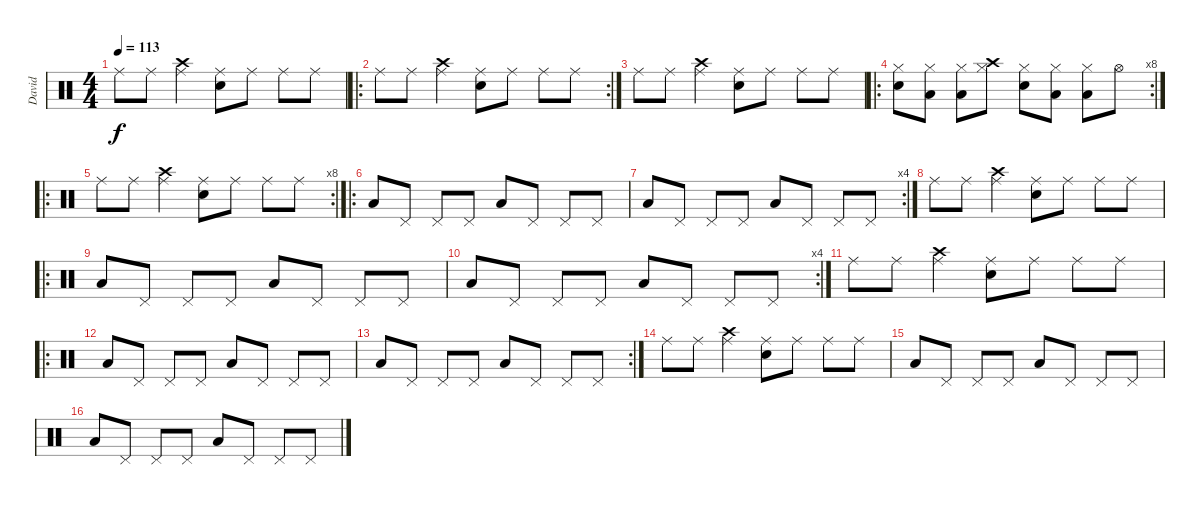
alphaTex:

\track ("David" "David") {instrument percussion}
\staff {score}
\articulation defaults
\ts (4 4)
\tempo 113
\clef neutral
\ks c "Ride (middle)".8{dy f} "Ride (middle)".8
("Crash high (hit)" "Ride (middle)").4 ("Electric Snare (hit)" "Ride (middle)").8 "Ride (middle)".8 "Ride (middle)".8 "Ride (middle)".8 |
\ro
\rc 2 "Ride (middle)".8 "Ride (middle)".8
("Crash high (hit)" "Ride (middle)").4 ("Electric Snare (hit)" "Ride (middle)").8 "Ride (middle)".8 "Ride (middle)".8 "Ride (middle)".8 |
"Ride (middle)".8 "Ride (middle)".8 ("Crash high (hit)" "Ride (middle)").4 ("Electric Snare (hit)" "Ride (middle)").8 "Ride (middle)".8 "Ride (middle)".8 "Ride (middle)".8 |
\ro
\rc 8
("Hi-Hat (closed)" "Electric Snare (hit)").8 ("Hi-Hat (closed)" "Low Tom (hit)").8 ("Hi-Hat (closed)" "Low Tom (hit)").8 ("Crash high (hit)" "Hi-Hat (closed)").8 ("Hi-Hat (closed)" "Electric Snare (hit)").8 ("Hi-Hat (closed)" "Low Tom (hit)").8 ("Hi-Hat (closed)" "Low Tom (hit)").8 "Hi-Hat (open)".8 |
\ro
\rc 8 "Ride (middle)".8 "Ride (middle)".8
("Crash high (hit)" "Ride (middle)").4 ("Electric Snare (hit)" "Ride (middle)").8 "Ride (middle)".8 "Ride (middle)".8 "Ride (middle)".8 |
\ro "Low Tom (hit)".8 "Pedal Hi-Hat (hit)".8 "Pedal Hi-Hat (hit)".8 "Pedal Hi-Hat (hit)".8 "Low Tom (hit)".8 "Pedal Hi-Hat (hit)".8 "Pedal Hi-Hat (hit)".8 "Pedal Hi-Hat (hit)".8
|
\rc 4 "Low Tom (hit)".8 "Pedal Hi-Hat (hit)".8 "Pedal Hi-Hat (hit)".8 "Pedal Hi-Hat (hit)".8 "Low Tom (hit)".8 "Pedal Hi-Hat (hit)".8 "Pedal Hi-Hat (hit)".8 "Pedal Hi-Hat (hit)".8
|
"Ride (middle)".8 "Ride (middle)".8 ("Crash high (hit)" "Ride (middle)").4 ("Electric Snare (hit)" "Ride (middle)").8 "Ride (middle)".8 "Ride (middle)".8 "Ride (middle)".8 |
\ro "Low Tom (hit)".8 "Pedal Hi-Hat (hit)".8 "Pedal Hi-Hat (hit)".8 "Pedal Hi-Hat (hit)".8 "Low Tom (hit)".8 "Pedal Hi-Hat (hit)".8 "Pedal Hi-Hat (hit)".8 "Pedal Hi-Hat (hit)".8
|
\rc 4 "Low Tom (hit)".8 "Pedal Hi-Hat (hit)".8 "Pedal Hi-Hat (hit)".8 "Pedal Hi-Hat (hit)".8 "Low Tom (hit)".8 "Pedal Hi-Hat (hit)".8 "Pedal Hi-Hat (hit)".8 "Pedal Hi-Hat (hit)".8
|
"Ride (middle)".8 "Ride (middle)".8 ("Crash high (hit)" "Ride (middle)").4 ("Electric Snare (hit)" "Ride (middle)").8 "Ride (middle)".8 "Ride (middle)".8 "Ride (middle)".8 |
\ro "Low Tom (hit)".8 "Pedal Hi-Hat (hit)".8 "Pedal Hi-Hat (hit)".8 "Pedal Hi-Hat (hit)".8 "Low Tom (hit)".8 "Pedal Hi-Hat (hit)".8 "Pedal Hi-Hat (hit)".8 "Pedal Hi-Hat (hit)".8
|
\rc 2 "Low Tom (hit)".8 "Pedal Hi-Hat (hit)".8 "Pedal Hi-Hat (hit)".8 "Pedal Hi-Hat (hit)".8 "Low Tom (hit)".8 "Pedal Hi-Hat (hit)".8 "Pedal Hi-Hat (hit)".8 "Pedal Hi-Hat (hit)".8
|
"Ride (middle)".8 "Ride (middle)".8 ("Crash high (hit)" "Ride (middle)").4 ("Electric Snare (hit)" "Ride (middle)").8 "Ride (middle)".8 "Ride (middle)".8 "Ride (middle)".8 |
"Low Tom (hit)".8 "Pedal Hi-Hat (hit)".8 "Pedal Hi-Hat (hit)".8 "Pedal Hi-Hat (hit)".8 "Low Tom (hit)".8 "Pedal Hi-Hat (hit)".8 "Pedal Hi-Hat (hit)".8 "Pedal Hi-Hat (hit)".8 |
"Low Tom (hit)".8 "Pedal Hi-Hat (hit)".8 "Pedal Hi-Hat (hit)".8 "Pedal Hi-Hat (hit)".8 "Low Tom (hit)".8 "Pedal Hi-Hat (hit)".8 "Pedal Hi-Hat (hit)".8 "Pedal Hi-Hat (hit)".8
